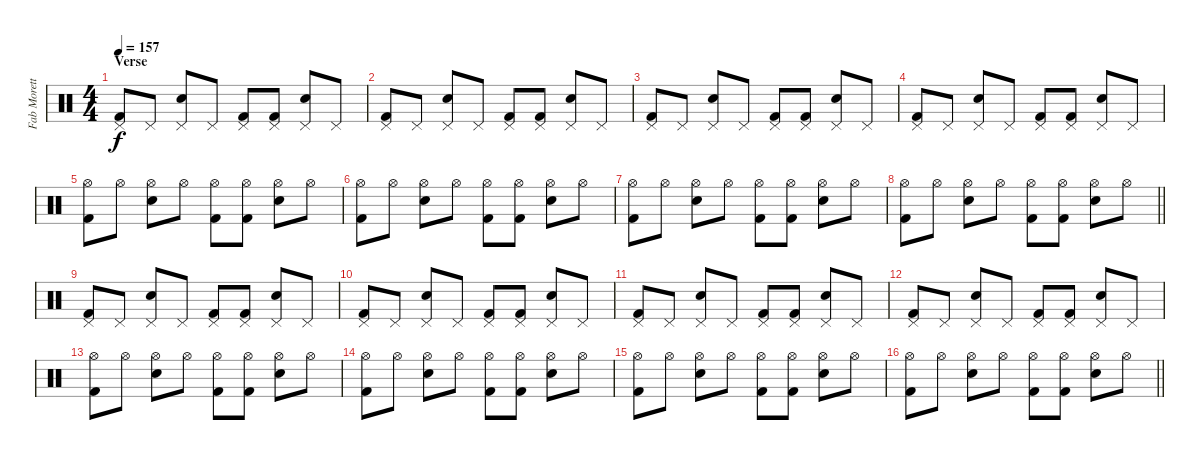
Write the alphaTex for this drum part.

\track ("Fab Moretti - Drums" "Fab Morett") {instrument percussion bank 177}
\staff {score}
\articulation defaults
\ts (4 4)
\section ("" "Verse")
\tempo 157
\clef neutral
\ks c
("Pedal Hi-Hat (hit)" "Kick (hit) 2").8{dy f} "Pedal Hi-Hat (hit)".8 ("Pedal Hi-Hat (hit)" "Electric Snare (hit)").8 "Pedal Hi-Hat (hit)".8 ("Pedal Hi-Hat (hit)" "Kick (hit) 2").8 ("Pedal Hi-Hat (hit)" "Kick (hit) 2").8 ("Pedal Hi-Hat (hit)" "Electric Snare (hit)").8 "Pedal Hi-Hat (hit)".8 |
("Pedal Hi-Hat (hit)" "Kick (hit) 2").8 "Pedal Hi-Hat (hit)".8 ("Pedal Hi-Hat (hit)" "Electric Snare (hit)").8 "Pedal Hi-Hat (hit)".8 ("Pedal Hi-Hat (hit)" "Kick (hit) 2").8 ("Pedal Hi-Hat (hit)" "Kick (hit) 2").8 ("Pedal Hi-Hat (hit)" "Electric Snare (hit)").8 "Pedal Hi-Hat (hit)".8 |
("Pedal Hi-Hat (hit)" "Kick (hit) 2").8 "Pedal Hi-Hat (hit)".8 ("Pedal Hi-Hat (hit)" "Electric Snare (hit)").8 "Pedal Hi-Hat (hit)".8 ("Pedal Hi-Hat (hit)" "Kick (hit) 2").8 ("Pedal Hi-Hat (hit)" "Kick (hit) 2").8 ("Pedal Hi-Hat (hit)" "Electric Snare (hit)").8 "Pedal Hi-Hat (hit)".8 |
("Pedal Hi-Hat (hit)" "Kick (hit) 2").8 "Pedal Hi-Hat (hit)".8 ("Pedal Hi-Hat (hit)" "Electric Snare (hit)").8 "Pedal Hi-Hat (hit)".8 ("Pedal Hi-Hat (hit)" "Kick (hit) 2").8 ("Pedal Hi-Hat (hit)" "Kick (hit) 2").8 ("Pedal Hi-Hat (hit)" "Electric Snare (hit)").8 "Pedal Hi-Hat (hit)".8 |
("Hi-Hat (open)" "Kick (hit) 2").8 "Hi-Hat (open)".8 ("Hi-Hat (open)" "Electric Snare (hit)").8 "Hi-Hat (open)".8 ("Hi-Hat (open)" "Kick (hit) 2").8 ("Hi-Hat (open)" "Kick (hit) 2").8 ("Hi-Hat (open)" "Electric Snare (hit)").8 "Hi-Hat (open)".8 |
("Hi-Hat (open)" "Kick (hit) 2").8 "Hi-Hat (open)".8 ("Hi-Hat (open)" "Electric Snare (hit)").8 "Hi-Hat (open)".8 ("Hi-Hat (open)" "Kick (hit) 2").8 ("Hi-Hat (open)" "Kick (hit) 2").8 ("Hi-Hat (open)" "Electric Snare (hit)").8 "Hi-Hat (open)".8 |
("Hi-Hat (open)" "Kick (hit) 2").8 "Hi-Hat (open)".8 ("Hi-Hat (open)" "Electric Snare (hit)").8 "Hi-Hat (open)".8 ("Hi-Hat (open)" "Kick (hit) 2").8 ("Hi-Hat (open)" "Kick (hit) 2").8 ("Hi-Hat (open)" "Electric Snare (hit)").8 "Hi-Hat (open)".8 |
\barLineRight lightlight
("Hi-Hat (open)" "Kick (hit) 2").8 "Hi-Hat (open)".8 ("Hi-Hat (open)" "Electric Snare (hit)").8 "Hi-Hat (open)".8 ("Hi-Hat (open)" "Kick (hit) 2").8 ("Hi-Hat (open)" "Kick (hit) 2").8 ("Hi-Hat (open)" "Electric Snare (hit)").8 "Hi-Hat (open)".8 |
("Pedal Hi-Hat (hit)" "Kick (hit) 2").8 "Pedal Hi-Hat (hit)".8 ("Pedal Hi-Hat (hit)" "Electric Snare (hit)").8 "Pedal Hi-Hat (hit)".8 ("Pedal Hi-Hat (hit)" "Kick (hit) 2").8 ("Pedal Hi-Hat (hit)" "Kick (hit) 2").8 ("Pedal Hi-Hat (hit)" "Electric Snare (hit)").8 "Pedal Hi-Hat (hit)".8 |
("Pedal Hi-Hat (hit)" "Kick (hit) 2").8 "Pedal Hi-Hat (hit)".8 ("Pedal Hi-Hat (hit)" "Electric Snare (hit)").8 "Pedal Hi-Hat (hit)".8 ("Pedal Hi-Hat (hit)" "Kick (hit) 2").8 ("Pedal Hi-Hat (hit)" "Kick (hit) 2").8 ("Pedal Hi-Hat (hit)" "Electric Snare (hit)").8 "Pedal Hi-Hat (hit)".8 |
("Pedal Hi-Hat (hit)" "Kick (hit) 2").8 "Pedal Hi-Hat (hit)".8 ("Pedal Hi-Hat (hit)" "Electric Snare (hit)").8 "Pedal Hi-Hat (hit)".8 ("Pedal Hi-Hat (hit)" "Kick (hit) 2").8 ("Pedal Hi-Hat (hit)" "Kick (hit) 2").8 ("Pedal Hi-Hat (hit)" "Electric Snare (hit)").8 "Pedal Hi-Hat (hit)".8 |
("Pedal Hi-Hat (hit)" "Kick (hit) 2").8 "Pedal Hi-Hat (hit)".8 ("Pedal Hi-Hat (hit)" "Electric Snare (hit)").8 "Pedal Hi-Hat (hit)".8 ("Pedal Hi-Hat (hit)" "Kick (hit) 2").8 ("Pedal Hi-Hat (hit)" "Kick (hit) 2").8 ("Pedal Hi-Hat (hit)" "Electric Snare (hit)").8 "Pedal Hi-Hat (hit)".8 |
("Hi-Hat (open)" "Kick (hit) 2").8 "Hi-Hat (open)".8 ("Hi-Hat (open)" "Electric Snare (hit)").8 "Hi-Hat (open)".8 ("Hi-Hat (open)" "Kick (hit) 2").8 ("Hi-Hat (open)" "Kick (hit) 2").8 ("Hi-Hat (open)" "Electric Snare (hit)").8 "Hi-Hat (open)".8 |
("Hi-Hat (open)" "Kick (hit) 2").8 "Hi-Hat (open)".8 ("Hi-Hat (open)" "Electric Snare (hit)").8 "Hi-Hat (open)".8 ("Hi-Hat (open)" "Kick (hit) 2").8 ("Hi-Hat (open)" "Kick (hit) 2").8 ("Hi-Hat (open)" "Electric Snare (hit)").8 "Hi-Hat (open)".8 |
("Hi-Hat (open)" "Kick (hit) 2").8 "Hi-Hat (open)".8 ("Hi-Hat (open)" "Electric Snare (hit)").8 "Hi-Hat (open)".8 ("Hi-Hat (open)" "Kick (hit) 2").8 ("Hi-Hat (open)" "Kick (hit) 2").8 ("Hi-Hat (open)" "Electric Snare (hit)").8 "Hi-Hat (open)".8 |
\barLineRight lightlight
("Hi-Hat (open)" "Kick (hit) 2").8 "Hi-Hat (open)".8 ("Hi-Hat (open)" "Electric Snare (hit)").8 "Hi-Hat (open)".8 ("Hi-Hat (open)" "Kick (hit) 2").8 ("Hi-Hat (open)" "Kick (hit) 2").8 ("Hi-Hat (open)" "Electric Snare (hit)").8 "Hi-Hat (open)".8
